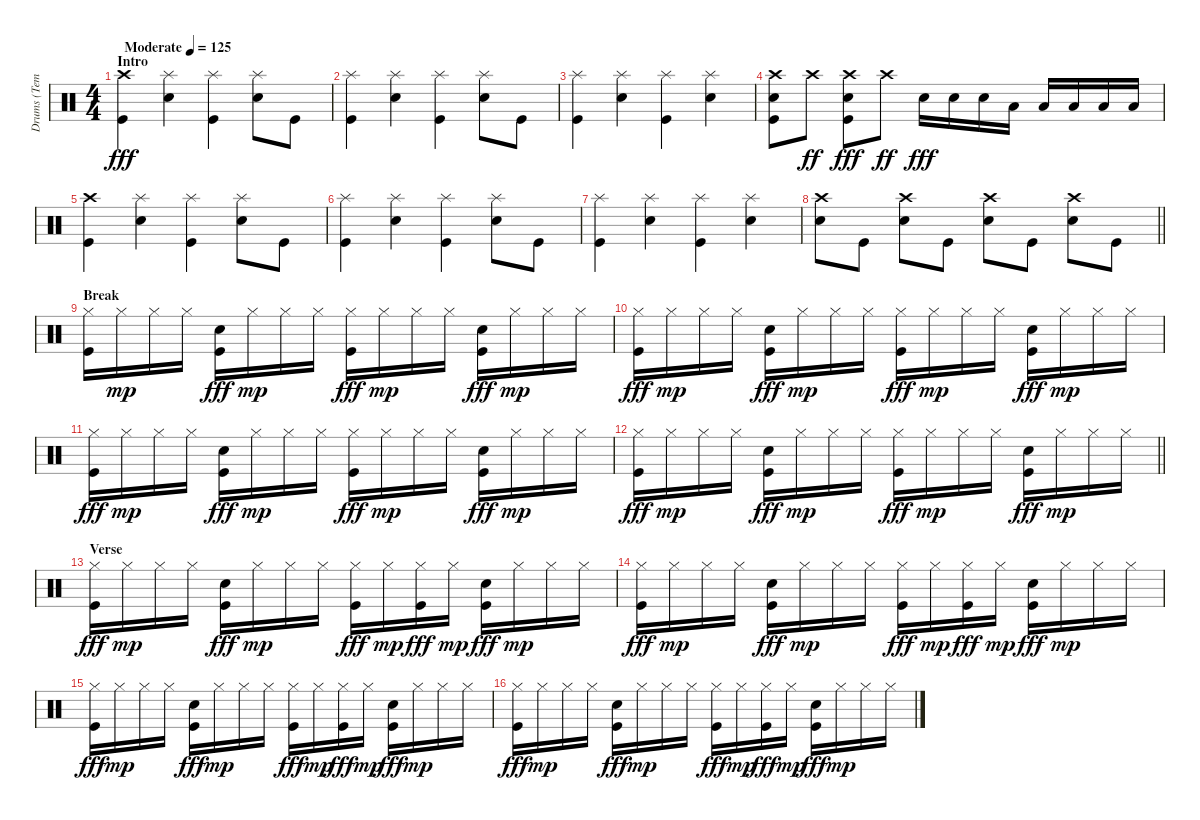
\track ("Drums (Tempesta)" "Drums (Tem") {instrument percussion}
\staff {score}
\articulation defaults
\ts (4 4)
\section ("" "Intro")
\tempo (125 "Moderate")
\clef neutral
\ks c
("Crash high (hit)" "Kick (hit)").4{dy fff} ("Splash (hit)" "Electric Snare (hit)").4 ("Splash (hit)" "Kick (hit)").4 ("Splash (hit)" "Electric Snare (hit)").8 "Kick (hit)".8 |
("Splash (hit)" "Kick (hit)").4 ("Splash (hit)" "Electric Snare (hit)").4 ("Splash (hit)" "Kick (hit)").4 ("Splash (hit)" "Electric Snare (hit)").8 "Kick (hit)".8 |
("Splash (hit)" "Kick (hit)").4 ("Splash (hit)" "Electric Snare (hit)").4 ("Splash (hit)" "Kick (hit)").4 ("Splash (hit)" "Electric Snare (hit)").4 |
("Crash high (hit)" "Electric Snare (hit)" "Kick (hit)").8 "Crash high (hit)".8{dy ff} ("Crash high (hit)" "Electric Snare (hit)" "Kick (hit)").8{dy fff} "Crash high (hit)".8{dy ff} "Electric Snare (hit)".16{dy fff} "Electric Snare (hit)".16 "Electric Snare (hit)".16 "Low Tom (hit)".16 "Low Tom (hit)".16 "Low Tom (hit)".16 "Low Floor Tom (hit)".16 "Low Floor Tom (hit)".16 |
("Crash high (hit)" "Kick (hit)").4 ("Splash (hit)" "Electric Snare (hit)").4 ("Splash (hit)" "Kick (hit)").4 ("Splash (hit)" "Electric Snare (hit)").8 "Kick (hit)".8 |
("Splash (hit)" "Kick (hit)").4 ("Splash (hit)" "Electric Snare (hit)").4 ("Splash (hit)" "Kick (hit)").4 ("Splash (hit)" "Electric Snare (hit)").8 "Kick (hit)".8 |
("Splash (hit)" "Kick (hit)").4 ("Splash (hit)" "Electric Snare (hit)").4 ("Splash (hit)" "Kick (hit)").4 ("Splash (hit)" "Electric Snare (hit)").4 |
\barLineRight lightlight
("Crash high (hit)" "Electric Snare (hit)").8 "Kick (hit)".8 ("Crash high (hit)" "Electric Snare (hit)").8 "Kick (hit)".8 ("Crash high (hit)" "Electric Snare (hit)").8 "Kick (hit)".8 ("Crash high (hit)" "Electric Snare (hit)").8 "Kick (hit)".8 |
\section ("" "Break")
("Hi-Hat (closed)" "Kick (hit)").16 "Hi-Hat (closed)".16{dy mp} "Hi-Hat (closed)".16 "Hi-Hat (closed)".16 ("Electric Snare (hit)" "Kick (hit)").16{dy fff} "Hi-Hat (closed)".16{dy mp} "Hi-Hat (closed)".16 "Hi-Hat (closed)".16 ("Hi-Hat (closed)" "Kick (hit)").16{dy fff} "Hi-Hat (closed)".16{dy mp} "Hi-Hat (closed)".16 "Hi-Hat (closed)".16 ("Electric Snare (hit)" "Kick (hit)").16{dy fff} "Hi-Hat (closed)".16{dy mp} "Hi-Hat (closed)".16 "Hi-Hat (closed)".16 |
("Hi-Hat (closed)" "Kick (hit)").16{dy fff} "Hi-Hat (closed)".16{dy mp} "Hi-Hat (closed)".16 "Hi-Hat (closed)".16 ("Electric Snare (hit)" "Kick (hit)").16{dy fff} "Hi-Hat (closed)".16{dy mp} "Hi-Hat (closed)".16 "Hi-Hat (closed)".16 ("Hi-Hat (closed)" "Kick (hit)").16{dy fff} "Hi-Hat (closed)".16{dy mp} "Hi-Hat (closed)".16 "Hi-Hat (closed)".16 ("Electric Snare (hit)" "Kick (hit)").16{dy fff} "Hi-Hat (closed)".16{dy mp} "Hi-Hat (closed)".16 "Hi-Hat (closed)".16 |
("Hi-Hat (closed)" "Kick (hit)").16{dy fff} "Hi-Hat (closed)".16{dy mp} "Hi-Hat (closed)".16 "Hi-Hat (closed)".16 ("Electric Snare (hit)" "Kick (hit)").16{dy fff} "Hi-Hat (closed)".16{dy mp} "Hi-Hat (closed)".16 "Hi-Hat (closed)".16 ("Hi-Hat (closed)" "Kick (hit)").16{dy fff} "Hi-Hat (closed)".16{dy mp} "Hi-Hat (closed)".16 "Hi-Hat (closed)".16 ("Electric Snare (hit)" "Kick (hit)").16{dy fff} "Hi-Hat (closed)".16{dy mp} "Hi-Hat (closed)".16 "Hi-Hat (closed)".16 |
\barLineRight lightlight
("Hi-Hat (closed)" "Kick (hit)").16{dy fff} "Hi-Hat (closed)".16{dy mp} "Hi-Hat (closed)".16 "Hi-Hat (closed)".16 ("Electric Snare (hit)" "Kick (hit)").16{dy fff} "Hi-Hat (closed)".16{dy mp} "Hi-Hat (closed)".16 "Hi-Hat (closed)".16 ("Hi-Hat (closed)" "Kick (hit)").16{dy fff} "Hi-Hat (closed)".16{dy mp} "Hi-Hat (closed)".16 "Hi-Hat (closed)".16 ("Electric Snare (hit)" "Kick (hit)").16{dy fff} "Hi-Hat (closed)".16{dy mp} "Hi-Hat (closed)".16 "Hi-Hat (closed)".16 |
\section ("" "Verse")
("Hi-Hat (closed)" "Kick (hit)").16{dy fff} "Hi-Hat (closed)".16{dy mp} "Hi-Hat (closed)".16 "Hi-Hat (closed)".16 ("Electric Snare (hit)" "Kick (hit)").16{dy fff} "Hi-Hat (closed)".16{dy mp} "Hi-Hat (closed)".16 "Hi-Hat (closed)".16 ("Hi-Hat (closed)" "Kick (hit)").16{dy fff} "Hi-Hat (closed)".16{dy mp} ("Hi-Hat (closed)" "Kick (hit)").16{dy fff} "Hi-Hat (closed)".16{dy mp} ("Electric Snare (hit)" "Kick (hit)").16{dy fff} "Hi-Hat (closed)".16{dy mp} "Hi-Hat (closed)".16 "Hi-Hat (closed)".16 |
("Hi-Hat (closed)" "Kick (hit)").16{dy fff} "Hi-Hat (closed)".16{dy mp} "Hi-Hat (closed)".16 "Hi-Hat (closed)".16 ("Electric Snare (hit)" "Kick (hit)").16{dy fff} "Hi-Hat (closed)".16{dy mp} "Hi-Hat (closed)".16 "Hi-Hat (closed)".16 ("Hi-Hat (closed)" "Kick (hit)").16{dy fff} "Hi-Hat (closed)".16{dy mp} ("Hi-Hat (closed)" "Kick (hit)").16{dy fff} "Hi-Hat (closed)".16{dy mp} ("Electric Snare (hit)" "Kick (hit)").16{dy fff} "Hi-Hat (closed)".16{dy mp} "Hi-Hat (closed)".16 "Hi-Hat (closed)".16 |
("Hi-Hat (closed)" "Kick (hit)").16{dy fff} "Hi-Hat (closed)".16{dy mp} "Hi-Hat (closed)".16 "Hi-Hat (closed)".16 ("Electric Snare (hit)" "Kick (hit)").16{dy fff} "Hi-Hat (closed)".16{dy mp} "Hi-Hat (closed)".16 "Hi-Hat (closed)".16 ("Hi-Hat (closed)" "Kick (hit)").16{dy fff} "Hi-Hat (closed)".16{dy mp} ("Hi-Hat (closed)" "Kick (hit)").16{dy fff} "Hi-Hat (closed)".16{dy mp} ("Electric Snare (hit)" "Kick (hit)").16{dy fff} "Hi-Hat (closed)".16{dy mp} "Hi-Hat (closed)".16 "Hi-Hat (closed)".16 |
("Hi-Hat (closed)" "Kick (hit)").16{dy fff} "Hi-Hat (closed)".16{dy mp} "Hi-Hat (closed)".16 "Hi-Hat (closed)".16 ("Electric Snare (hit)" "Kick (hit)").16{dy fff} "Hi-Hat (closed)".16{dy mp} "Hi-Hat (closed)".16 "Hi-Hat (closed)".16 ("Hi-Hat (closed)" "Kick (hit)").16{dy fff} "Hi-Hat (closed)".16{dy mp} ("Hi-Hat (closed)" "Kick (hit)").16{dy fff} "Hi-Hat (closed)".16{dy mp} ("Electric Snare (hit)" "Kick (hit)").16{dy fff} "Hi-Hat (closed)".16{dy mp} "Hi-Hat (closed)".16 "Hi-Hat (closed)".16
